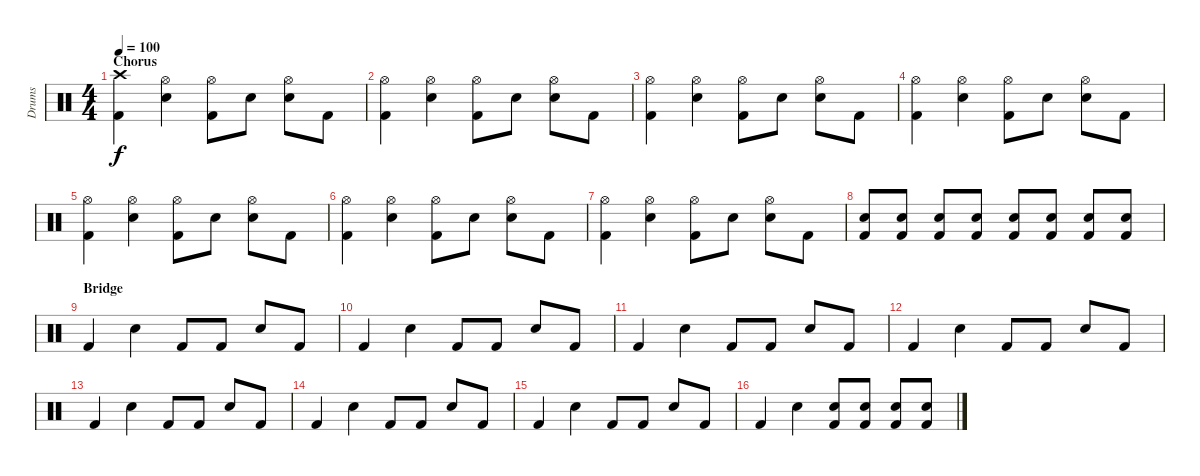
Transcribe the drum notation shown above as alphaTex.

\track ("Drums" "Drums") {instrument percussion}
\staff {score}
\articulation defaults
\ts (4 4)
\section ("" "Chorus")
\tempo 100
\clef neutral
\ks c
("Crash high (hit)" "Kick (hit) 2").4{dy f} ("Hi-Hat (open)" "Electric Snare (hit)").4 ("Hi-Hat (open)" "Kick (hit) 2").8 "Electric Snare (hit)".8 ("Hi-Hat (open)" "Electric Snare (hit)").8 "Kick (hit) 2".8 |
("Hi-Hat (open)" "Kick (hit) 2").4 ("Hi-Hat (open)" "Electric Snare (hit)").4 ("Hi-Hat (open)" "Kick (hit) 2").8 "Electric Snare (hit)".8 ("Hi-Hat (open)" "Electric Snare (hit)").8 "Kick (hit) 2".8 |
("Hi-Hat (open)" "Kick (hit) 2").4 ("Hi-Hat (open)" "Electric Snare (hit)").4 ("Hi-Hat (open)" "Kick (hit) 2").8 "Electric Snare (hit)".8 ("Hi-Hat (open)" "Electric Snare (hit)").8 "Kick (hit) 2".8 |
("Hi-Hat (open)" "Kick (hit) 2").4 ("Hi-Hat (open)" "Electric Snare (hit)").4 ("Hi-Hat (open)" "Kick (hit) 2").8 "Electric Snare (hit)".8 ("Hi-Hat (open)" "Electric Snare (hit)").8 "Kick (hit) 2".8 |
("Hi-Hat (open)" "Kick (hit) 2").4 ("Hi-Hat (open)" "Electric Snare (hit)").4 ("Hi-Hat (open)" "Kick (hit) 2").8 "Electric Snare (hit)".8 ("Hi-Hat (open)" "Electric Snare (hit)").8 "Kick (hit) 2".8 |
("Hi-Hat (open)" "Kick (hit) 2").4 ("Hi-Hat (open)" "Electric Snare (hit)").4 ("Hi-Hat (open)" "Kick (hit) 2").8 "Electric Snare (hit)".8 ("Hi-Hat (open)" "Electric Snare (hit)").8 "Kick (hit) 2".8 |
("Hi-Hat (open)" "Kick (hit) 2").4 ("Hi-Hat (open)" "Electric Snare (hit)").4 ("Hi-Hat (open)" "Kick (hit) 2").8 "Electric Snare (hit)".8 ("Hi-Hat (open)" "Electric Snare (hit)").8 "Kick (hit) 2".8 |
("Electric Snare (hit)" "Kick (hit) 2").8 ("Electric Snare (hit)" "Kick (hit) 2").8 ("Electric Snare (hit)" "Kick (hit) 2").8 ("Electric Snare (hit)" "Kick (hit) 2").8 ("Electric Snare (hit)" "Kick (hit) 2").8 ("Electric Snare (hit)" "Kick (hit) 2").8 ("Electric Snare (hit)" "Kick (hit) 2").8 ("Electric Snare (hit)" "Kick (hit) 2").8 |
\section ("" "Bridge")
"Kick (hit) 2".4 "Electric Snare (hit)".4 "Kick (hit) 2".8 "Kick (hit) 2".8 "Electric Snare (hit)".8 "Kick (hit) 2".8 |
"Kick (hit) 2".4 "Electric Snare (hit)".4 "Kick (hit) 2".8 "Kick (hit) 2".8 "Electric Snare (hit)".8 "Kick (hit) 2".8 |
"Kick (hit) 2".4 "Electric Snare (hit)".4 "Kick (hit) 2".8 "Kick (hit) 2".8 "Electric Snare (hit)".8 "Kick (hit) 2".8 |
"Kick (hit) 2".4 "Electric Snare (hit)".4 "Kick (hit) 2".8 "Kick (hit) 2".8 "Electric Snare (hit)".8 "Kick (hit) 2".8 |
"Kick (hit) 2".4 "Electric Snare (hit)".4 "Kick (hit) 2".8 "Kick (hit) 2".8 "Electric Snare (hit)".8 "Kick (hit) 2".8 |
"Kick (hit) 2".4 "Electric Snare (hit)".4 "Kick (hit) 2".8 "Kick (hit) 2".8 "Electric Snare (hit)".8 "Kick (hit) 2".8 |
"Kick (hit) 2".4 "Electric Snare (hit)".4 "Kick (hit) 2".8 "Kick (hit) 2".8 "Electric Snare (hit)".8 "Kick (hit) 2".8 |
"Kick (hit) 2".4 "Electric Snare (hit)".4 ("Electric Snare (hit)" "Kick (hit) 2").8 ("Electric Snare (hit)" "Kick (hit) 2").8 ("Electric Snare (hit)" "Kick (hit) 2").8 ("Electric Snare (hit)" "Kick (hit) 2").8
